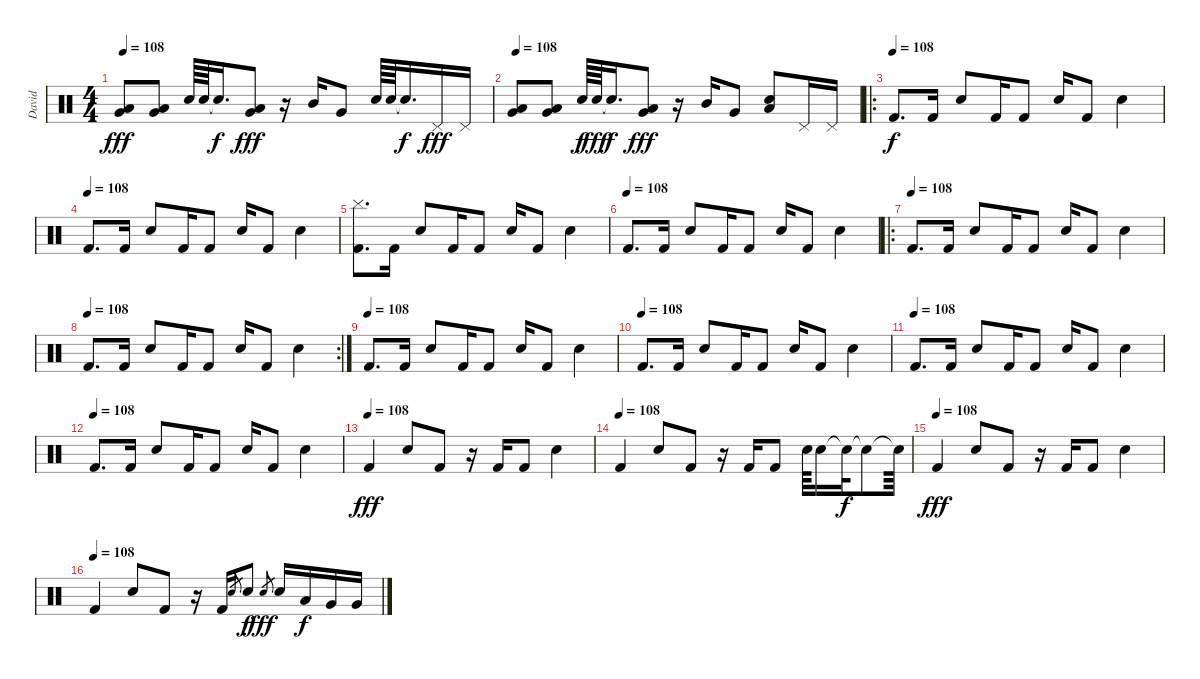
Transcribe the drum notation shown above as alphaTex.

\track ("David" "David") {instrument percussion}
\staff {score}
\articulation defaults
\ts (4 4)
\tempo 108
\clef neutral
\ks c
("Low Tom (hit)" "Very Low Tom (hit)").8{dy fff} ("Low Tom (hit)" "Very Low Tom (hit)").8 "Snare (hit) 2".64 "Snare (hit) 2".64 "Snare (hit)"{t}.16{d dy f} ("Low Tom (hit)" "Very Low Tom (hit)").8{dy fff} r.16 "Mid Tom (hit)".16 "Very Low Tom (hit)".8 "Snare (hit) 2".64 "Snare (hit) 2".64 "Snare (hit) 2"{t}.16{d dy f} "Pedal Hi-Hat (hit)".16{dy fff} "Pedal Hi-Hat (hit)".16 |
\tempo 108
("Low Tom (hit)" "Very Low Tom (hit)").8 ("Low Tom (hit)" "Very Low Tom (hit)").8 "Snare (hit) 2".64{dy f} "Snare (hit) 2".64{dy fff} "Snare (hit)"{t}.16{d dy f} ("Low Tom (hit)" "Very Low Tom (hit)").8{dy fff} r.16 "Mid Tom (hit)".16 "Very Low Tom (hit)".8 ("Snare (hit) 2" "Low Floor Tom (hit)").8 "Pedal Hi-Hat (hit)".16 "Pedal Hi-Hat (hit)".16 |
\ro
\tempo (108)
"Kick (hit) 2".8{d dy f} "Kick (hit) 2".16 "Snare (hit) 2".8 "Kick (hit) 2".16 "Kick (hit) 2".8 "Snare (hit) 2".16 "Kick (hit) 2".8 "Snare (hit) 2".4 |
\tempo (108)
"Kick (hit) 2".8{d} "Kick (hit) 2".16 "Snare (hit) 2".8 "Kick (hit) 2".16 "Kick (hit) 2".8 "Snare (hit) 2".16 "Kick (hit) 2".8 "Snare (hit) 2".4 |
("Cymbal (hit)" "Kick (hit) 2").8{d} "Kick (hit) 2".16 "Snare (hit) 2".8 "Kick (hit) 2".16 "Kick (hit) 2".8 "Snare (hit) 2".16 "Kick (hit) 2".8 "Snare (hit) 2".4 |
\tempo (108)
"Kick (hit) 2".8{d} "Kick (hit) 2".16 "Snare (hit) 2".8 "Kick (hit) 2".16 "Kick (hit) 2".8 "Snare (hit) 2".16 "Kick (hit) 2".8 "Snare (hit) 2".4 |
\ro
\tempo (108)
"Kick (hit) 2".8{d} "Kick (hit) 2".16 "Snare (hit) 2".8 "Kick (hit) 2".16 "Kick (hit) 2".8 "Snare (hit) 2".16 "Kick (hit) 2".8 "Snare (hit) 2".4 |
\rc 2
\tempo (108)
"Kick (hit) 2".8{d} "Kick (hit) 2".16 "Snare (hit) 2".8 "Kick (hit) 2".16 "Kick (hit) 2".8 "Snare (hit) 2".16 "Kick (hit) 2".8 "Snare (hit) 2".4 |
\tempo (108)
"Kick (hit) 2".8{d} "Kick (hit) 2".16 "Snare (hit) 2".8 "Kick (hit) 2".16 "Kick (hit) 2".8 "Snare (hit) 2".16 "Kick (hit) 2".8 "Snare (hit) 2".4 |
\tempo (108)
"Kick (hit) 2".8{d} "Kick (hit) 2".16 "Snare (hit) 2".8 "Kick (hit) 2".16 "Kick (hit) 2".8 "Snare (hit) 2".16 "Kick (hit) 2".8 "Snare (hit) 2".4 |
\tempo (108)
"Kick (hit) 2".8{d} "Kick (hit) 2".16 "Snare (hit) 2".8 "Kick (hit) 2".16 "Kick (hit) 2".8 "Snare (hit) 2".16 "Kick (hit) 2".8 "Snare (hit) 2".4 |
\tempo (108)
"Kick (hit) 2".8{d} "Kick (hit) 2".16 "Snare (hit) 2".8 "Kick (hit) 2".16 "Kick (hit) 2".8 "Snare (hit) 2".16 "Kick (hit) 2".8 "Snare (hit) 2".4 |
\tempo (108)
"Kick (hit) 2".4{dy fff} "Snare (hit) 2".8 "Kick (hit) 2".8 r.16 "Kick (hit) 2".16 "Kick (hit) 2".8 "Snare (hit) 2".4 |
\tempo (108)
"Kick (hit) 2".4 "Snare (hit) 2".8 "Kick (hit) 2".8 r.16 "Kick (hit) 2".16 "Kick (hit) 2".8 "Snare (hit) 2".64 "Snare (hit) 2".16 "Snare (hit)"{t}.32{dy f} "Snare (hit)"{t}.8 "Snare (hit)"{t}.64 |
\tempo (108)
"Kick (hit) 2".4{dy fff} "Snare (hit) 2".8 "Kick (hit) 2".8 r.16 "Kick (hit) 2".16 "Kick (hit) 2".8 "Snare (hit) 2".4 |
\tempo (108)
"Kick (hit) 2".4 "Snare (hit) 2".8 "Kick (hit) 2".8 r.16 "Kick (hit) 2".16 "Snare (hit) 2".8{gr} "Snare (hit) 2".8{dy f} "Snare (hit) 2".8{gr dy fff} "Snare (hit) 2".16 "Low Tom (hit)".16{dy f} "Very Low Tom (hit)".16 "Very Low Tom (hit)".16
